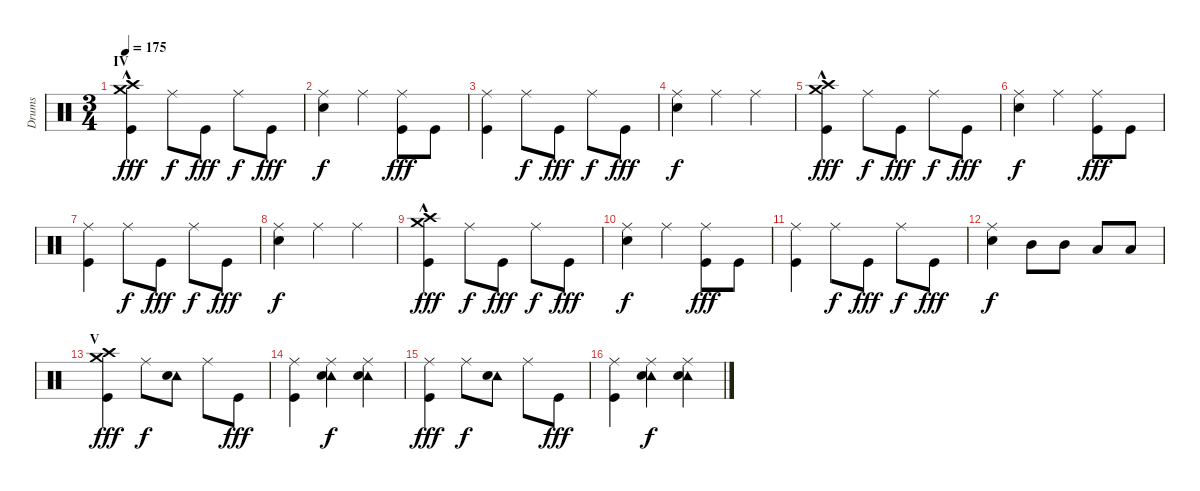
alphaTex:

\track ("Drums" "Drums") {instrument percussion}
\staff {score}
\articulation defaults
\ts (3 4)
\section ("" "IV")
\tempo 175
\clef neutral
\ks c
("Crash high (hit)"{hac} "Crash medium (hit)" "Kick (hit)").4{dy fff} "Ride (middle)".8{dy f} "Kick (hit)".8{dy fff} "Ride (middle)".8{dy f} "Kick (hit)".8{dy fff} |
("Ride (middle)" "Snare (hit) 2").4{dy f} "Ride (middle)".4 ("Ride (middle)" "Kick (hit)").8{dy fff} "Kick (hit)".8 |
("Ride (middle)" "Kick (hit)").4 "Ride (middle)".8{dy f} "Kick (hit)".8{dy fff} "Ride (middle)".8{dy f} "Kick (hit)".8{dy fff} |
("Ride (middle)" "Snare (hit) 2").4{dy f} "Ride (middle)".4 "Ride (middle)".4 |
("Crash high (hit)"{hac} "Crash medium (hit)" "Kick (hit)").4{dy fff} "Ride (middle)".8{dy f} "Kick (hit)".8{dy fff} "Ride (middle)".8{dy f} "Kick (hit)".8{dy fff} |
("Ride (middle)" "Snare (hit) 2").4{dy f} "Ride (middle)".4 ("Ride (middle)" "Kick (hit)").8{dy fff} "Kick (hit)".8 |
("Ride (middle)" "Kick (hit)").4 "Ride (middle)".8{dy f} "Kick (hit)".8{dy fff} "Ride (middle)".8{dy f} "Kick (hit)".8{dy fff} |
("Ride (middle)" "Snare (hit) 2").4{dy f} "Ride (middle)".4 "Ride (middle)".4 |
("Crash high (hit)"{hac} "Crash medium (hit)" "Kick (hit)").4{dy fff} "Ride (middle)".8{dy f} "Kick (hit)".8{dy fff} "Ride (middle)".8{dy f} "Kick (hit)".8{dy fff} |
("Ride (middle)" "Snare (hit) 2").4{dy f} "Ride (middle)".4 ("Ride (middle)" "Kick (hit)").8{dy fff} "Kick (hit)".8 |
("Ride (middle)" "Kick (hit)").4 "Ride (middle)".8{dy f} "Kick (hit)".8{dy fff} "Ride (middle)".8{dy f} "Kick (hit)".8{dy fff} |
("Ride (middle)" "Snare (hit) 2").4{dy f} "Mid Tom (hit)".8 "Mid Tom (hit)".8 "Low Tom (hit)".8 "Low Tom (hit)".8 |
\section ("" "V")
("Crash high (hit)" "Crash medium (hit)" "Kick (hit)").4{dy fff} "Ride (middle)".8{dy f} ("Tambourine (hit)" "Snare (hit) 2").8 "Ride (middle)".8 "Kick (hit)".8{dy fff} |
("Ride (middle)" "Kick (hit)").4 ("Ride (middle)" "Tambourine (hit)" "Snare (hit) 2").4{dy f} ("Ride (middle)" "Tambourine (hit)" "Snare (hit) 2").4 |
("Ride (middle)" "Kick (hit)").4{dy fff} "Ride (middle)".8{dy f} ("Tambourine (hit)" "Snare (hit) 2").8 "Ride (middle)".8 "Kick (hit)".8{dy fff} |
("Ride (middle)" "Kick (hit)").4 ("Ride (middle)" "Tambourine (hit)" "Snare (hit) 2").4{dy f} ("Ride (middle)" "Tambourine (hit)" "Snare (hit) 2").4
